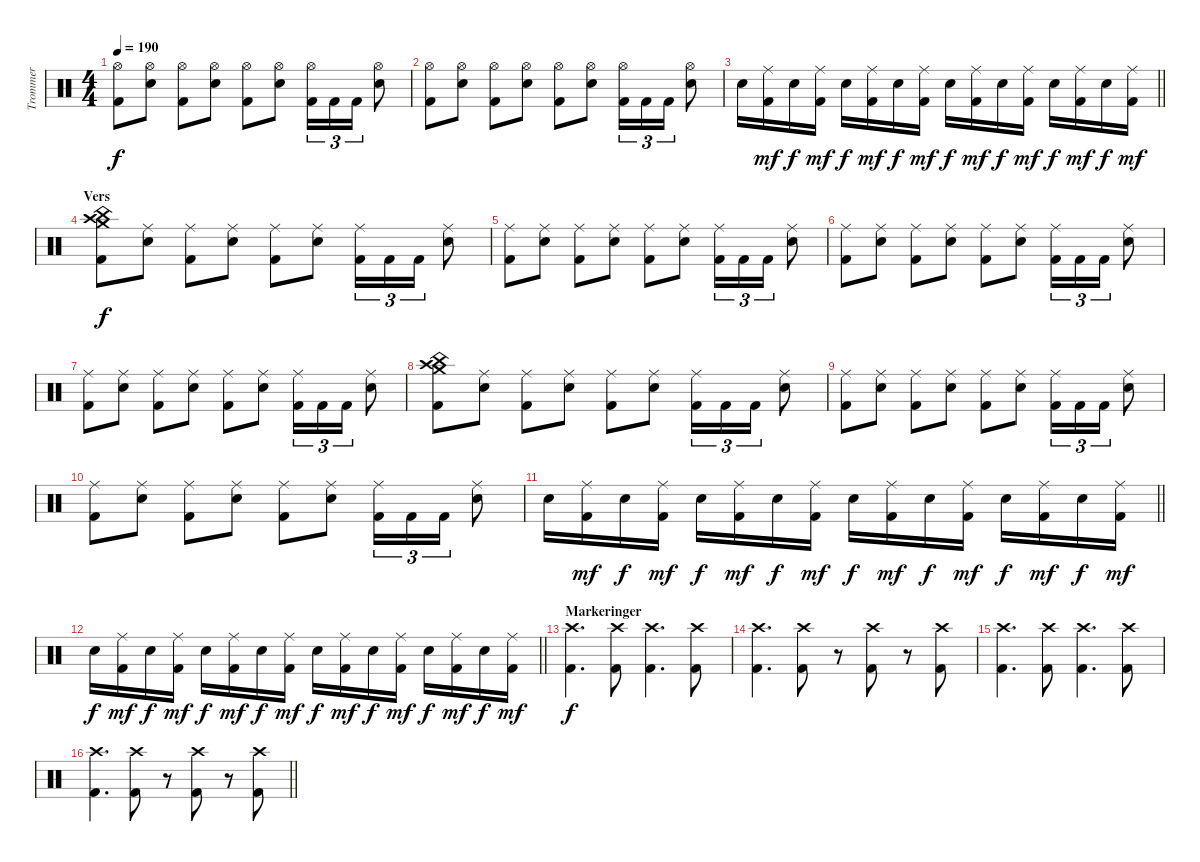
\track ("Trommer" "Trommer") {instrument percussion}
\staff {score}
\articulation defaults
\ts (4 4)
\tempo 190
\clef neutral
\ks c
("Hi-Hat (open)" "Kick (hit) 2").8{dy f} ("Hi-Hat (open)" "Snare (hit) 2").8 ("Hi-Hat (open)" "Kick (hit) 2").8 ("Hi-Hat (open)" "Snare (hit) 2").8 ("Hi-Hat (open)" "Kick (hit) 2").8 ("Hi-Hat (open)" "Snare (hit) 2").8 ("Hi-Hat (open)" "Kick (hit) 2").16{tu (3 2)} "Kick (hit) 2".16{tu (3 2)} "Kick (hit) 2".16{tu (3 2)} ("Hi-Hat (open)" "Snare (hit) 2").8 |
("Hi-Hat (open)" "Kick (hit) 2").8 ("Hi-Hat (open)" "Snare (hit) 2").8 ("Hi-Hat (open)" "Kick (hit) 2").8 ("Hi-Hat (open)" "Snare (hit) 2").8 ("Hi-Hat (open)" "Kick (hit) 2").8 ("Hi-Hat (open)" "Snare (hit) 2").8 ("Hi-Hat (open)" "Kick (hit) 2").16{tu (3 2)} "Kick (hit) 2".16{tu (3 2)} "Kick (hit) 2".16{tu (3 2)} ("Hi-Hat (open)" "Snare (hit) 2").8 |
\barLineRight lightlight "Snare (hit) 2".16
("Ride (middle)" "Kick (hit) 2").16{dy mf} "Snare (hit) 2".16{dy f} ("Ride (middle)" "Kick (hit) 2").16{dy mf} "Snare (hit) 2".16{dy f} ("Ride (middle)" "Kick (hit) 2").16{dy mf} "Snare (hit) 2".16{dy f} ("Ride (middle)" "Kick (hit) 2").16{dy mf} "Snare (hit) 2".16{dy f} ("Ride (middle)" "Kick (hit) 2").16{dy mf} "Snare (hit) 2".16{dy f} ("Ride (middle)" "Kick (hit) 2").16{dy mf} "Snare (hit) 2".16{dy f} ("Ride (middle)" "Kick (hit) 2").16{dy mf} "Snare (hit) 2".16{dy f} ("Ride (middle)" "Kick (hit) 2").16{dy mf} |
\section ("" "Vers")
("Crash medium (hit)" "Crash high (hit)" "China (hit)" "Kick (hit) 2").8{dy f} ("Ride (middle)" "Snare (hit) 2").8 ("Ride (middle)" "Kick (hit) 2").8 ("Ride (middle)" "Snare (hit) 2").8 ("Ride (middle)" "Kick (hit) 2").8 ("Ride (middle)" "Snare (hit) 2").8 ("Ride (middle)" "Kick (hit) 2").16{tu (3 2)} "Kick (hit) 2".16{tu (3 2)} "Kick (hit) 2".16{tu (3 2)} ("Ride (middle)" "Snare (hit) 2").8 |
("Ride (middle)" "Kick (hit) 2").8 ("Ride (middle)" "Snare (hit) 2").8 ("Ride (middle)" "Kick (hit) 2").8 ("Ride (middle)" "Snare (hit) 2").8 ("Ride (middle)" "Kick (hit) 2").8 ("Ride (middle)" "Snare (hit) 2").8 ("Ride (middle)" "Kick (hit) 2").16{tu (3 2)} "Kick (hit) 2".16{tu (3 2)} "Kick (hit) 2".16{tu (3 2)} ("Ride (middle)" "Snare (hit) 2").8 |
("Ride (middle)" "Kick (hit) 2").8 ("Ride (middle)" "Snare (hit) 2").8 ("Ride (middle)" "Kick (hit) 2").8 ("Ride (middle)" "Snare (hit) 2").8 ("Ride (middle)" "Kick (hit) 2").8 ("Ride (middle)" "Snare (hit) 2").8 ("Ride (middle)" "Kick (hit) 2").16{tu (3 2)} "Kick (hit) 2".16{tu (3 2)} "Kick (hit) 2".16{tu (3 2)} ("Ride (middle)" "Snare (hit) 2").8 |
("Ride (middle)" "Kick (hit) 2").8 ("Ride (middle)" "Snare (hit) 2").8 ("Ride (middle)" "Kick (hit) 2").8 ("Ride (middle)" "Snare (hit) 2").8 ("Ride (middle)" "Kick (hit) 2").8 ("Ride (middle)" "Snare (hit) 2").8 ("Ride (middle)" "Kick (hit) 2").16{tu (3 2)} "Kick (hit) 2".16{tu (3 2)} "Kick (hit) 2".16{tu (3 2)} ("Ride (middle)" "Snare (hit) 2").8 |
("Crash medium (hit)" "Crash high (hit)" "China (hit)" "Kick (hit) 2").8 ("Ride (middle)" "Snare (hit) 2").8 ("Ride (middle)" "Kick (hit) 2").8 ("Ride (middle)" "Snare (hit) 2").8 ("Ride (middle)" "Kick (hit) 2").8 ("Ride (middle)" "Snare (hit) 2").8 ("Ride (middle)" "Kick (hit) 2").16{tu (3 2)} "Kick (hit) 2".16{tu (3 2)} "Kick (hit) 2".16{tu (3 2)} ("Ride (middle)" "Snare (hit) 2").8 |
("Ride (middle)" "Kick (hit) 2").8 ("Ride (middle)" "Snare (hit) 2").8 ("Ride (middle)" "Kick (hit) 2").8 ("Ride (middle)" "Snare (hit) 2").8 ("Ride (middle)" "Kick (hit) 2").8 ("Ride (middle)" "Snare (hit) 2").8 ("Ride (middle)" "Kick (hit) 2").16{tu (3 2)} "Kick (hit) 2".16{tu (3 2)} "Kick (hit) 2".16{tu (3 2)} ("Ride (middle)" "Snare (hit) 2").8 |
("Ride (middle)" "Kick (hit) 2").8 ("Ride (middle)" "Snare (hit) 2").8 ("Ride (middle)" "Kick (hit) 2").8 ("Ride (middle)" "Snare (hit) 2").8 ("Ride (middle)" "Kick (hit) 2").8 ("Ride (middle)" "Snare (hit) 2").8 ("Ride (middle)" "Kick (hit) 2").16{tu (3 2)} "Kick (hit) 2".16{tu (3 2)} "Kick (hit) 2".16{tu (3 2)} ("Ride (middle)" "Snare (hit) 2").8 |
\barLineRight lightlight "Snare (hit) 2".16
("Ride (middle)" "Kick (hit) 2").16{dy mf} "Snare (hit) 2".16{dy f} ("Ride (middle)" "Kick (hit) 2").16{dy mf} "Snare (hit) 2".16{dy f} ("Ride (middle)" "Kick (hit) 2").16{dy mf} "Snare (hit) 2".16{dy f} ("Ride (middle)" "Kick (hit) 2").16{dy mf} "Snare (hit) 2".16{dy f} ("Ride (middle)" "Kick (hit) 2").16{dy mf} "Snare (hit) 2".16{dy f} ("Ride (middle)" "Kick (hit) 2").16{dy mf} "Snare (hit) 2".16{dy f} ("Ride (middle)" "Kick (hit) 2").16{dy mf} "Snare (hit) 2".16{dy f} ("Ride (middle)" "Kick (hit) 2").16{dy mf} |
\barLineRight lightlight "Snare (hit) 2".16{dy f}
("Ride (middle)" "Kick (hit) 2").16{dy mf} "Snare (hit) 2".16{dy f} ("Ride (middle)" "Kick (hit) 2").16{dy mf} "Snare (hit) 2".16{dy f} ("Ride (middle)" "Kick (hit) 2").16{dy mf} "Snare (hit) 2".16{dy f} ("Ride (middle)" "Kick (hit) 2").16{dy mf} "Snare (hit) 2".16{dy f} ("Ride (middle)" "Kick (hit) 2").16{dy mf} "Snare (hit) 2".16{dy f} ("Ride (middle)" "Kick (hit) 2").16{dy mf} "Snare (hit) 2".16{dy f} ("Ride (middle)" "Kick (hit) 2").16{dy mf} "Snare (hit) 2".16{dy f} ("Ride (middle)" "Kick (hit) 2").16{dy mf} |
\section ("" "Markeringer")
("Crash high (hit)" "Kick (hit) 2").4{d dy f} ("Crash high (hit)" "Kick (hit) 2").8 ("Crash high (hit)" "Kick (hit) 2").4{d} ("Crash high (hit)" "Kick (hit) 2").8 |
("Crash high (hit)" "Kick (hit) 2").4{d} ("Crash high (hit)" "Kick (hit) 2").8 r.8 ("Crash high (hit)" "Kick (hit) 2").8 r.8 ("Crash high (hit)" "Kick (hit) 2").8 |
("Crash high (hit)" "Kick (hit) 2").4{d} ("Crash high (hit)" "Kick (hit) 2").8 ("Crash high (hit)" "Kick (hit) 2").4{d} ("Crash high (hit)" "Kick (hit) 2").8 |
\barLineRight lightlight
("Crash high (hit)" "Kick (hit) 2").4{d} ("Crash high (hit)" "Kick (hit) 2").8 r.8 ("Crash high (hit)" "Kick (hit) 2").8 r.8 ("Crash high (hit)" "Kick (hit) 2").8
